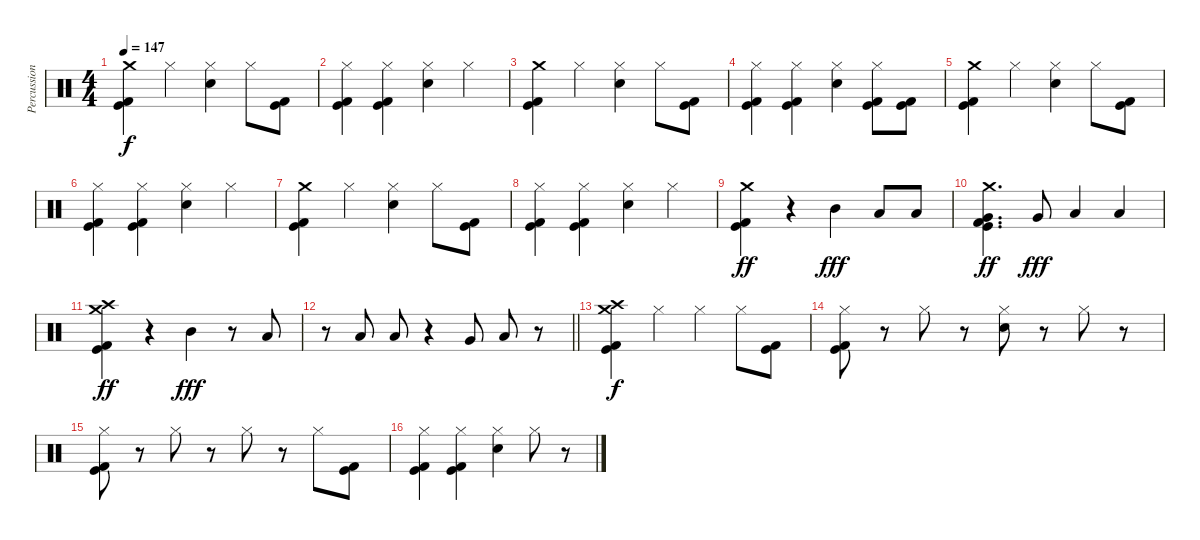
\track ("Percussion" "Percussion") {instrument percussion}
\staff {score}
\articulation defaults
\ts (4 4)
\tempo 147
\clef neutral
\ks c
("Crash medium (hit)" "Kick (hit) 2" "Kick (hit)").4{dy f} "Hi-Hat (closed)".4 ("Hi-Hat (closed)" "Snare (hit) 2").4 "Hi-Hat (closed)".8 ("Kick (hit) 2" "Kick (hit)").8 |
("Hi-Hat (closed)" "Kick (hit) 2" "Kick (hit)").4 ("Hi-Hat (closed)" "Kick (hit) 2" "Kick (hit)").4 ("Hi-Hat (closed)" "Snare (hit) 2").4 "Hi-Hat (closed)".4 |
("Crash medium (hit)" "Kick (hit) 2" "Kick (hit)").4 "Hi-Hat (closed)".4 ("Hi-Hat (closed)" "Snare (hit) 2").4 "Hi-Hat (closed)".8 ("Kick (hit) 2" "Kick (hit)").8 |
("Hi-Hat (closed)" "Kick (hit) 2" "Kick (hit)").4 ("Hi-Hat (closed)" "Kick (hit) 2" "Kick (hit)").4 ("Hi-Hat (closed)" "Snare (hit) 2").4 ("Hi-Hat (closed)" "Kick (hit) 2" "Kick (hit)").8 ("Kick (hit) 2" "Kick (hit)").8 |
("Crash medium (hit)" "Kick (hit) 2" "Kick (hit)").4 "Hi-Hat (closed)".4 ("Hi-Hat (closed)" "Snare (hit) 2").4 "Hi-Hat (closed)".8 ("Kick (hit) 2" "Kick (hit)").8 |
("Hi-Hat (closed)" "Kick (hit) 2" "Kick (hit)").4 ("Hi-Hat (closed)" "Kick (hit) 2" "Kick (hit)").4 ("Hi-Hat (closed)" "Snare (hit) 2").4 "Hi-Hat (closed)".4 |
("Crash medium (hit)" "Kick (hit) 2" "Kick (hit)").4 "Hi-Hat (closed)".4 ("Hi-Hat (closed)" "Snare (hit) 2").4 "Hi-Hat (closed)".8 ("Kick (hit) 2" "Kick (hit)").8 |
("Hi-Hat (closed)" "Kick (hit) 2" "Kick (hit)").4 ("Hi-Hat (closed)" "Kick (hit) 2" "Kick (hit)").4 ("Hi-Hat (closed)" "Snare (hit) 2").4 "Hi-Hat (closed)".4 |
("Crash medium (hit)" "Kick (hit) 2" "Kick (hit)").4{dy ff} r.4 "Mid Tom (hit)".4{dy fff} "Low Tom (hit)".8 "Low Tom (hit)".8 |
("Crash medium (hit)" "Very Low Tom (hit)" "Kick (hit) 2" "Kick (hit)").4{d dy ff} "Very Low Tom (hit)".8{dy fff} "Low Floor Tom (hit)".4 "Low Floor Tom (hit)".4 |
("Crash medium (hit)" "Crash high (hit)" "Kick (hit) 2" "Kick (hit)").4{dy ff} r.4 "Mid Tom (hit)".4{dy fff} r.8 "Low Tom (hit)".8 |
\barLineRight lightlight
r.8 "Low Tom (hit)".8 "Low Tom (hit)".8 r.4 "Very Low Tom (hit)".8 "Low Floor Tom (hit)".8 r.8 |
("Crash medium (hit)" "Crash high (hit)" "Kick (hit) 2" "Kick (hit)").4{dy f} "Hi-Hat (closed)".4 "Hi-Hat (closed)".4 "Hi-Hat (closed)".8 ("Kick (hit) 2" "Kick (hit)").8 |
("Hi-Hat (closed)" "Kick (hit) 2" "Kick (hit)").8 r.8 "Hi-Hat (closed)".8 r.8 ("Hi-Hat (closed)" "Snare (hit) 2").8 r.8 "Hi-Hat (closed)".8 r.8 |
("Hi-Hat (closed)" "Kick (hit) 2" "Kick (hit)").8 r.8 "Hi-Hat (closed)".8 r.8 "Hi-Hat (closed)".8 r.8 "Hi-Hat (closed)".8 ("Kick (hit) 2" "Kick (hit)").8 |
("Hi-Hat (closed)" "Kick (hit) 2" "Kick (hit)").4 ("Hi-Hat (closed)" "Kick (hit) 2" "Kick (hit)").4 ("Hi-Hat (closed)" "Snare (hit) 2").4 "Hi-Hat (closed)".8 r.8
